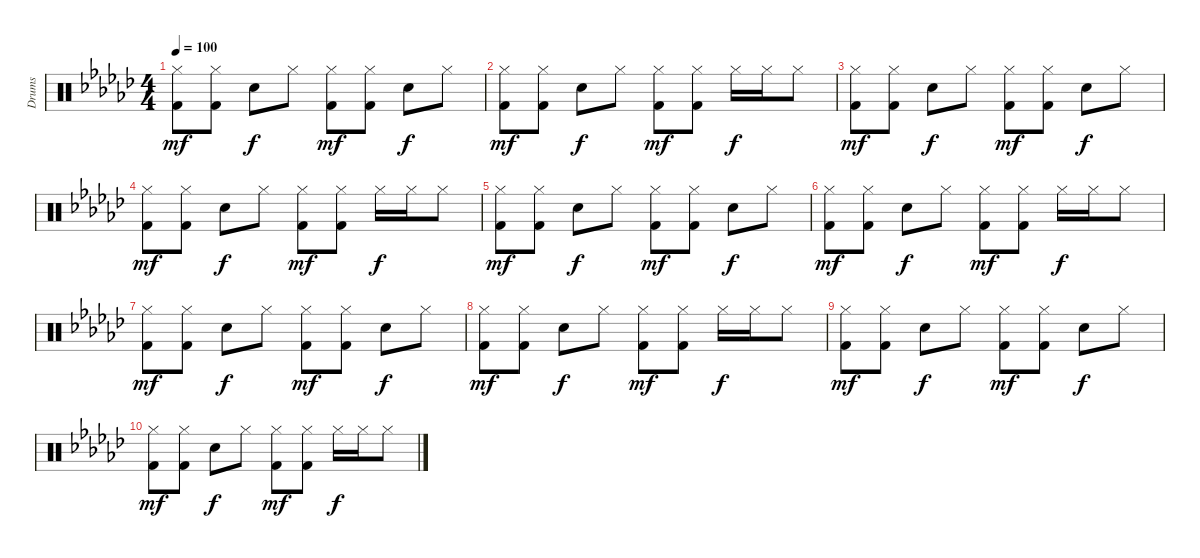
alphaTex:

\track ("Drums" "Drums") {instrument percussion}
\staff {score}
\articulation defaults
\ts (4 4)
\tempo 100
\clef neutral
\ks ebminor
("Hi-Hat (closed)" "Kick (hit) 2").8{dy mf} ("Hi-Hat (closed)" "Kick (hit) 2").8 "Snare (hit) 2".8{dy f} "Hi-Hat (closed)".8 ("Hi-Hat (closed)" "Kick (hit) 2").8{dy mf} ("Hi-Hat (closed)" "Kick (hit) 2").8 "Snare (hit) 2".8{dy f} "Hi-Hat (closed)".8 |
("Hi-Hat (closed)" "Kick (hit) 2").8{dy mf} ("Hi-Hat (closed)" "Kick (hit) 2").8 "Snare (hit) 2".8{dy f} "Hi-Hat (closed)".8 ("Hi-Hat (closed)" "Kick (hit) 2").8{dy mf} ("Hi-Hat (closed)" "Kick (hit) 2").8 "Hi-Hat (closed)".16{dy f} "Hi-Hat (closed)".16 "Hi-Hat (closed)".8 |
("Hi-Hat (closed)" "Kick (hit) 2").8{dy mf} ("Hi-Hat (closed)" "Kick (hit) 2").8 "Snare (hit) 2".8{dy f} "Hi-Hat (closed)".8 ("Hi-Hat (closed)" "Kick (hit) 2").8{dy mf} ("Hi-Hat (closed)" "Kick (hit) 2").8 "Snare (hit) 2".8{dy f} "Hi-Hat (closed)".8 |
("Hi-Hat (closed)" "Kick (hit) 2").8{dy mf} ("Hi-Hat (closed)" "Kick (hit) 2").8 "Snare (hit) 2".8{dy f} "Hi-Hat (closed)".8 ("Hi-Hat (closed)" "Kick (hit) 2").8{dy mf} ("Hi-Hat (closed)" "Kick (hit) 2").8 "Hi-Hat (closed)".16{dy f} "Hi-Hat (closed)".16 "Hi-Hat (closed)".8 |
("Hi-Hat (closed)" "Kick (hit) 2").8{dy mf} ("Hi-Hat (closed)" "Kick (hit) 2").8 "Snare (hit) 2".8{dy f} "Hi-Hat (closed)".8 ("Hi-Hat (closed)" "Kick (hit) 2").8{dy mf} ("Hi-Hat (closed)" "Kick (hit) 2").8 "Snare (hit) 2".8{dy f} "Hi-Hat (closed)".8 |
("Hi-Hat (closed)" "Kick (hit) 2").8{dy mf} ("Hi-Hat (closed)" "Kick (hit) 2").8 "Snare (hit) 2".8{dy f} "Hi-Hat (closed)".8 ("Hi-Hat (closed)" "Kick (hit) 2").8{dy mf} ("Hi-Hat (closed)" "Kick (hit) 2").8 "Hi-Hat (closed)".16{dy f} "Hi-Hat (closed)".16 "Hi-Hat (closed)".8 |
("Hi-Hat (closed)" "Kick (hit) 2").8{dy mf} ("Hi-Hat (closed)" "Kick (hit) 2").8 "Snare (hit) 2".8{dy f} "Hi-Hat (closed)".8 ("Hi-Hat (closed)" "Kick (hit) 2").8{dy mf} ("Hi-Hat (closed)" "Kick (hit) 2").8 "Snare (hit) 2".8{dy f} "Hi-Hat (closed)".8 |
("Hi-Hat (closed)" "Kick (hit) 2").8{dy mf} ("Hi-Hat (closed)" "Kick (hit) 2").8 "Snare (hit) 2".8{dy f} "Hi-Hat (closed)".8 ("Hi-Hat (closed)" "Kick (hit) 2").8{dy mf} ("Hi-Hat (closed)" "Kick (hit) 2").8 "Hi-Hat (closed)".16{dy f} "Hi-Hat (closed)".16 "Hi-Hat (closed)".8 |
("Hi-Hat (closed)" "Kick (hit) 2").8{dy mf} ("Hi-Hat (closed)" "Kick (hit) 2").8 "Snare (hit) 2".8{dy f} "Hi-Hat (closed)".8 ("Hi-Hat (closed)" "Kick (hit) 2").8{dy mf} ("Hi-Hat (closed)" "Kick (hit) 2").8 "Snare (hit) 2".8{dy f} "Hi-Hat (closed)".8 |
("Hi-Hat (closed)" "Kick (hit) 2").8{dy mf} ("Hi-Hat (closed)" "Kick (hit) 2").8 "Snare (hit) 2".8{dy f} "Hi-Hat (closed)".8 ("Hi-Hat (closed)" "Kick (hit) 2").8{dy mf} ("Hi-Hat (closed)" "Kick (hit) 2").8 "Hi-Hat (closed)".16{dy f} "Hi-Hat (closed)".16 "Hi-Hat (closed)".8
